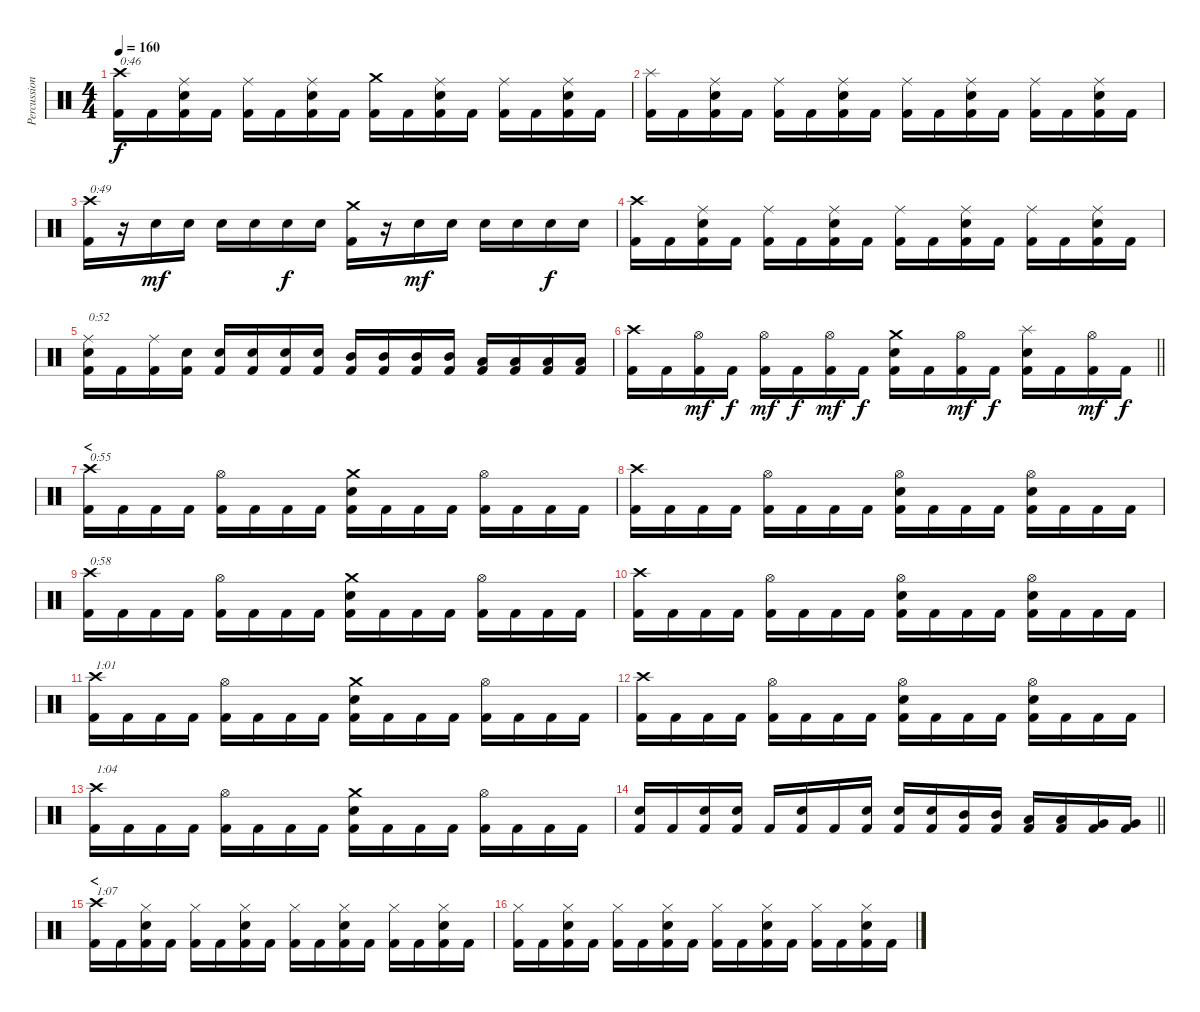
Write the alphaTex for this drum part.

\track ("Percussion" "Percussion") {instrument percussion}
\staff {score}
\articulation defaults
\ts (4 4)
\tempo 160
\clef neutral
\ks c
("Crash high (hit)" "Kick (hit) 2").16{txt "0:46" dy f} "Kick (hit) 2".16 ("Ride (middle)" "Electric Snare (hit)" "Kick (hit) 2").16 "Kick (hit) 2".16 ("Ride (middle)" "Kick (hit) 2").16 "Kick (hit) 2".16 ("Ride (middle)" "Electric Snare (hit)" "Kick (hit) 2").16 "Kick (hit) 2".16 ("Crash medium (hit)" "Kick (hit) 2").16 "Kick (hit) 2".16 ("Ride (middle)" "Electric Snare (hit)" "Kick (hit) 2").16 "Kick (hit) 2".16 ("Ride (middle)" "Kick (hit) 2").16 "Kick (hit) 2".16 ("Ride (middle)" "Electric Snare (hit)" "Kick (hit) 2").16 "Kick (hit) 2".16 |
("Splash (hit)" "Kick (hit) 2").16 "Kick (hit) 2".16 ("Ride (middle)" "Electric Snare (hit)" "Kick (hit) 2").16 "Kick (hit) 2".16 ("Ride (middle)" "Kick (hit) 2").16 "Kick (hit) 2".16 ("Ride (middle)" "Electric Snare (hit)" "Kick (hit) 2").16 "Kick (hit) 2".16 ("Ride (middle)" "Kick (hit) 2").16 "Kick (hit) 2".16 ("Ride (middle)" "Electric Snare (hit)" "Kick (hit) 2").16 "Kick (hit) 2".16 ("Ride (middle)" "Kick (hit) 2").16 "Kick (hit) 2".16 ("Ride (middle)" "Electric Snare (hit)" "Kick (hit) 2").16 "Kick (hit) 2".16 |
("Crash high (hit)" "Kick (hit) 2").16{txt "0:49"} r.16 "Electric Snare (hit)".16{dy mf} "Electric Snare (hit)".16 "Electric Snare (hit)".16 "Electric Snare (hit)".16 "Electric Snare (hit)".16{dy f} "Electric Snare (hit)".16 ("Crash medium (hit)" "Kick (hit) 2").16 r.16 "Electric Snare (hit)".16{dy mf} "Electric Snare (hit)".16 "Electric Snare (hit)".16 "Electric Snare (hit)".16 "Electric Snare (hit)".16{dy f} "Electric Snare (hit)".16 |
("Crash high (hit)" "Kick (hit) 2").16 "Kick (hit) 2".16 ("Ride (middle)" "Electric Snare (hit)" "Kick (hit) 2").16 "Kick (hit) 2".16 ("Ride (middle)" "Kick (hit) 2").16 "Kick (hit) 2".16 ("Ride (middle)" "Electric Snare (hit)" "Kick (hit) 2").16 "Kick (hit) 2".16 ("Ride (middle)" "Kick (hit) 2").16 "Kick (hit) 2".16 ("Ride (middle)" "Electric Snare (hit)" "Kick (hit) 2").16 "Kick (hit) 2".16 ("Ride (middle)" "Kick (hit) 2").16 "Kick (hit) 2".16 ("Ride (middle)" "Electric Snare (hit)" "Kick (hit) 2").16 "Kick (hit) 2".16 |
("Ride (middle)" "Electric Snare (hit)" "Kick (hit) 2").16{txt "0:52"} "Kick (hit) 2".16 ("Ride (middle)" "Kick (hit) 2").16 ("Electric Snare (hit)" "Kick (hit) 2").16 ("Electric Snare (hit)" "Kick (hit) 2").16 ("Electric Snare (hit)" "Kick (hit) 2").16 ("Electric Snare (hit)" "Kick (hit) 2").16 ("Electric Snare (hit)" "Kick (hit) 2").16 ("Mid Tom (hit)" "Kick (hit) 2").16 ("Mid Tom (hit)" "Kick (hit) 2").16 ("Mid Tom (hit)" "Kick (hit) 2").16 ("Mid Tom (hit)" "Kick (hit) 2").16 ("Low Tom (hit)" "Kick (hit) 2").16 ("Low Tom (hit)" "Kick (hit) 2").16 ("Low Tom (hit)" "Kick (hit) 2").16 ("Low Tom (hit)" "Kick (hit) 2").16 |
\barLineRight lightlight
("Crash high (hit)" "Kick (hit) 2").16 "Kick (hit) 2".16 ("Hi-Hat (open)" "Kick (hit) 2").16{dy mf} "Kick (hit) 2".16{dy f} ("Hi-Hat (open)" "Kick (hit) 2").16{dy mf} "Kick (hit) 2".16{dy f} ("Hi-Hat (open)" "Kick (hit) 2").16{dy mf} "Kick (hit) 2".16{dy f} ("Crash medium (hit)" "Electric Snare (hit)" "Kick (hit) 2").16 "Kick (hit) 2".16 ("Hi-Hat (open)" "Kick (hit) 2").16{dy mf} "Kick (hit) 2".16{dy f} ("Splash (hit)" "Electric Snare (hit)" "Kick (hit) 2").16 "Kick (hit) 2".16 ("Hi-Hat (open)" "Kick (hit) 2").16{dy mf} "Kick (hit) 2".16{dy f} |
\section ("" "<")
("Crash high (hit)" "Kick (hit) 2").16{txt "0:55"} "Kick (hit) 2".16 "Kick (hit) 2".16 "Kick (hit) 2".16 ("Hi-Hat (open)" "Kick (hit) 2").16 "Kick (hit) 2".16 "Kick (hit) 2".16 "Kick (hit) 2".16 ("Crash medium (hit)" "Electric Snare (hit)" "Kick (hit) 2").16 "Kick (hit) 2".16 "Kick (hit) 2".16 "Kick (hit) 2".16 ("Hi-Hat (open)" "Kick (hit) 2").16 "Kick (hit) 2".16 "Kick (hit) 2".16 "Kick (hit) 2".16 |
("Crash high (hit)" "Kick (hit) 2").16 "Kick (hit) 2".16 "Kick (hit) 2".16 "Kick (hit) 2".16 ("Hi-Hat (open)" "Kick (hit) 2").16 "Kick (hit) 2".16 "Kick (hit) 2".16 "Kick (hit) 2".16 ("Hi-Hat (open)" "Electric Snare (hit)" "Kick (hit) 2").16 "Kick (hit) 2".16 "Kick (hit) 2".16 "Kick (hit) 2".16 ("Hi-Hat (open)" "Electric Snare (hit)" "Kick (hit) 2").16 "Kick (hit) 2".16 "Kick (hit) 2".16 "Kick (hit) 2".16 |
("Crash high (hit)" "Kick (hit) 2").16{txt "0:58"} "Kick (hit) 2".16 "Kick (hit) 2".16 "Kick (hit) 2".16 ("Hi-Hat (open)" "Kick (hit) 2").16 "Kick (hit) 2".16 "Kick (hit) 2".16 "Kick (hit) 2".16 ("Crash medium (hit)" "Electric Snare (hit)" "Kick (hit) 2").16 "Kick (hit) 2".16 "Kick (hit) 2".16 "Kick (hit) 2".16 ("Hi-Hat (open)" "Kick (hit) 2").16 "Kick (hit) 2".16 "Kick (hit) 2".16 "Kick (hit) 2".16 |
("Crash high (hit)" "Kick (hit) 2").16 "Kick (hit) 2".16 "Kick (hit) 2".16 "Kick (hit) 2".16 ("Hi-Hat (open)" "Kick (hit) 2").16 "Kick (hit) 2".16 "Kick (hit) 2".16 "Kick (hit) 2".16 ("Hi-Hat (open)" "Electric Snare (hit)" "Kick (hit) 2").16 "Kick (hit) 2".16 "Kick (hit) 2".16 "Kick (hit) 2".16 ("Hi-Hat (open)" "Electric Snare (hit)" "Kick (hit) 2").16 "Kick (hit) 2".16 "Kick (hit) 2".16 "Kick (hit) 2".16 |
("Crash high (hit)" "Kick (hit) 2").16{txt "1:01"} "Kick (hit) 2".16 "Kick (hit) 2".16 "Kick (hit) 2".16 ("Hi-Hat (open)" "Kick (hit) 2").16 "Kick (hit) 2".16 "Kick (hit) 2".16 "Kick (hit) 2".16 ("Crash medium (hit)" "Electric Snare (hit)" "Kick (hit) 2").16 "Kick (hit) 2".16 "Kick (hit) 2".16 "Kick (hit) 2".16 ("Hi-Hat (open)" "Kick (hit) 2").16 "Kick (hit) 2".16 "Kick (hit) 2".16 "Kick (hit) 2".16 |
("Crash high (hit)" "Kick (hit) 2").16 "Kick (hit) 2".16 "Kick (hit) 2".16 "Kick (hit) 2".16 ("Hi-Hat (open)" "Kick (hit) 2").16 "Kick (hit) 2".16 "Kick (hit) 2".16 "Kick (hit) 2".16 ("Hi-Hat (open)" "Electric Snare (hit)" "Kick (hit) 2").16 "Kick (hit) 2".16 "Kick (hit) 2".16 "Kick (hit) 2".16 ("Hi-Hat (open)" "Electric Snare (hit)" "Kick (hit) 2").16 "Kick (hit) 2".16 "Kick (hit) 2".16 "Kick (hit) 2".16 |
("Crash high (hit)" "Kick (hit) 2").16{txt "1:04"} "Kick (hit) 2".16 "Kick (hit) 2".16 "Kick (hit) 2".16 ("Hi-Hat (open)" "Kick (hit) 2").16 "Kick (hit) 2".16 "Kick (hit) 2".16 "Kick (hit) 2".16 ("Crash medium (hit)" "Electric Snare (hit)" "Kick (hit) 2").16 "Kick (hit) 2".16 "Kick (hit) 2".16 "Kick (hit) 2".16 ("Hi-Hat (open)" "Kick (hit) 2").16 "Kick (hit) 2".16 "Kick (hit) 2".16 "Kick (hit) 2".16 |
\barLineRight lightlight
("Electric Snare (hit)" "Kick (hit) 2").16 "Kick (hit) 2".16 ("Electric Snare (hit)" "Kick (hit) 2").16 ("Electric Snare (hit)" "Kick (hit) 2").16 "Kick (hit) 2".16 ("Electric Snare (hit)" "Kick (hit) 2").16 "Kick (hit) 2".16 ("Electric Snare (hit)" "Kick (hit) 2").16 ("Electric Snare (hit)" "Kick (hit) 2").16 ("Electric Snare (hit)" "Kick (hit) 2").16 ("Mid Tom (hit)" "Kick (hit) 2").16 ("Mid Tom (hit)" "Kick (hit) 2").16 ("Low Tom (hit)" "Kick (hit) 2").16 ("Low Tom (hit)" "Kick (hit) 2").16 ("Very Low Tom (hit)" "Kick (hit) 2").16 ("Very Low Tom (hit)" "Kick (hit) 2").16 |
\section ("" "<")
("Crash high (hit)" "Kick (hit) 2").16{txt "1:07"} "Kick (hit) 2".16 ("Hi-Hat (closed)" "Electric Snare (hit)" "Kick (hit) 2").16 "Kick (hit) 2".16 ("Hi-Hat (closed)" "Kick (hit) 2").16 "Kick (hit) 2".16 ("Hi-Hat (closed)" "Electric Snare (hit)" "Kick (hit) 2").16 "Kick (hit) 2".16 ("Hi-Hat (closed)" "Kick (hit) 2").16 "Kick (hit) 2".16 ("Hi-Hat (closed)" "Electric Snare (hit)" "Kick (hit) 2").16 "Kick (hit) 2".16 ("Hi-Hat (closed)" "Kick (hit) 2").16 "Kick (hit) 2".16 ("Hi-Hat (closed)" "Electric Snare (hit)" "Kick (hit) 2").16 "Kick (hit) 2".16 |
("Hi-Hat (closed)" "Kick (hit) 2").16 "Kick (hit) 2".16 ("Hi-Hat (closed)" "Electric Snare (hit)" "Kick (hit) 2").16 "Kick (hit) 2".16 ("Hi-Hat (closed)" "Kick (hit) 2").16 "Kick (hit) 2".16 ("Hi-Hat (closed)" "Electric Snare (hit)" "Kick (hit) 2").16 "Kick (hit) 2".16 ("Hi-Hat (closed)" "Kick (hit) 2").16 "Kick (hit) 2".16 ("Hi-Hat (closed)" "Electric Snare (hit)" "Kick (hit) 2").16 "Kick (hit) 2".16 ("Hi-Hat (closed)" "Kick (hit) 2").16 "Kick (hit) 2".16 ("Hi-Hat (closed)" "Electric Snare (hit)" "Kick (hit) 2").16 "Kick (hit) 2".16
